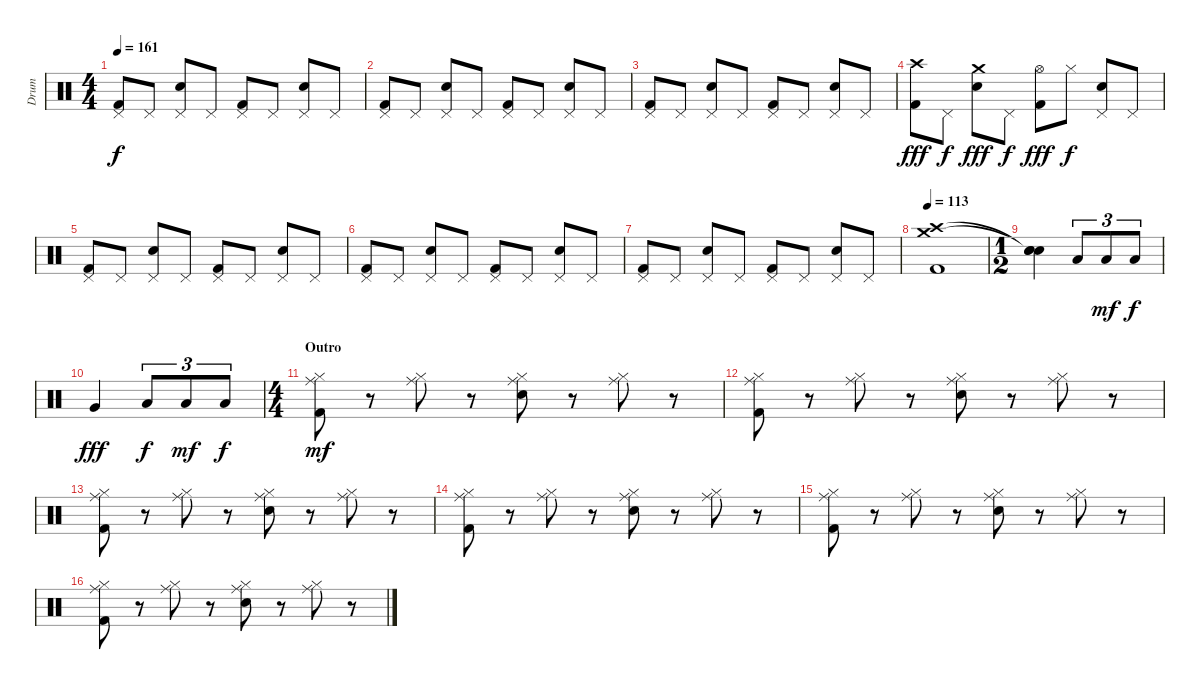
\track ("Drum" "Drum") {instrument percussion}
\staff {score}
\articulation defaults
\ts (4 4)
\tempo 161
\clef neutral
\ks c
("Pedal Hi-Hat (hit)" "Kick (hit) 2").8{dy f} "Pedal Hi-Hat (hit)".8 ("Pedal Hi-Hat (hit)" "Snare (hit) 2").8 "Pedal Hi-Hat (hit)".8 ("Pedal Hi-Hat (hit)" "Kick (hit) 2").8 "Pedal Hi-Hat (hit)".8 ("Pedal Hi-Hat (hit)" "Snare (hit) 2").8 "Pedal Hi-Hat (hit)".8 |
("Pedal Hi-Hat (hit)" "Kick (hit) 2").8 "Pedal Hi-Hat (hit)".8 ("Pedal Hi-Hat (hit)" "Snare (hit) 2").8 "Pedal Hi-Hat (hit)".8 ("Pedal Hi-Hat (hit)" "Kick (hit) 2").8 "Pedal Hi-Hat (hit)".8 ("Pedal Hi-Hat (hit)" "Snare (hit) 2").8 "Pedal Hi-Hat (hit)".8 |
("Pedal Hi-Hat (hit)" "Kick (hit) 2").8 "Pedal Hi-Hat (hit)".8 ("Pedal Hi-Hat (hit)" "Snare (hit) 2").8 "Pedal Hi-Hat (hit)".8 ("Pedal Hi-Hat (hit)" "Kick (hit) 2").8 "Pedal Hi-Hat (hit)".8 ("Pedal Hi-Hat (hit)" "Snare (hit) 2").8 "Pedal Hi-Hat (hit)".8 |
("Crash high (hit)" "Kick (hit) 2").8{dy fff} "Pedal Hi-Hat (hit)".8{dy f} ("Crash medium (hit)" "Snare (hit) 2").8{dy fff} "Pedal Hi-Hat (hit)".8{dy f} ("Hi-Hat (open)" "Kick (hit) 2").8{dy fff} "Hi-Hat (closed)".8{dy f} ("Pedal Hi-Hat (hit)" "Snare (hit) 2").8 "Pedal Hi-Hat (hit)".8 |
("Pedal Hi-Hat (hit)" "Kick (hit) 2").8 "Pedal Hi-Hat (hit)".8 ("Pedal Hi-Hat (hit)" "Snare (hit) 2").8 "Pedal Hi-Hat (hit)".8 ("Pedal Hi-Hat (hit)" "Kick (hit) 2").8 "Pedal Hi-Hat (hit)".8 ("Pedal Hi-Hat (hit)" "Snare (hit) 2").8 "Pedal Hi-Hat (hit)".8 |
("Pedal Hi-Hat (hit)" "Kick (hit) 2").8 "Pedal Hi-Hat (hit)".8 ("Pedal Hi-Hat (hit)" "Snare (hit) 2").8 "Pedal Hi-Hat (hit)".8 ("Pedal Hi-Hat (hit)" "Kick (hit) 2").8 "Pedal Hi-Hat (hit)".8 ("Pedal Hi-Hat (hit)" "Snare (hit) 2").8 "Pedal Hi-Hat (hit)".8 |
("Pedal Hi-Hat (hit)" "Kick (hit) 2").8 "Pedal Hi-Hat (hit)".8 ("Pedal Hi-Hat (hit)" "Snare (hit) 2").8 "Pedal Hi-Hat (hit)".8 ("Pedal Hi-Hat (hit)" "Kick (hit) 2").8 "Pedal Hi-Hat (hit)".8 ("Pedal Hi-Hat (hit)" "Snare (hit) 2").8 "Pedal Hi-Hat (hit)".8 |
\tempo 113
("Crash medium (hit)" "Crash high (hit)" "Kick (hit) 2").1 |
\ts (1 2)
("Snare (hit)"{t} "Snare (hit)"{t} "Snare (hit) 2").4 "Low Tom (hit)".8{tu (3 2)} "Low Tom (hit)".8{tu (3 2) dy mf} "Low Tom (hit)".8{tu (3 2) dy f} |
"Very Low Tom (hit)".4{dy fff} "Low Tom (hit)".8{tu (3 2) dy f} "Low Tom (hit)".8{tu (3 2) dy mf} "Low Tom (hit)".8{tu (3 2) dy f} |
\ts (4 4)
\section ("" "Outro")
("Ride (middle)" "Hi-Hat (closed)" "Kick (hit) 2").8{dy mf} r.8 ("Ride (middle)" "Hi-Hat (closed)").8 r.8 ("Ride (middle)" "Hi-Hat (closed)" "Snare (hit) 2").8 r.8 ("Ride (middle)" "Hi-Hat (closed)").8 r.8 |
("Ride (middle)" "Hi-Hat (closed)" "Kick (hit) 2").8 r.8 ("Ride (middle)" "Hi-Hat (closed)").8 r.8 ("Ride (middle)" "Hi-Hat (closed)" "Snare (hit) 2").8 r.8 ("Ride (middle)" "Hi-Hat (closed)").8 r.8 |
("Ride (middle)" "Hi-Hat (closed)" "Kick (hit) 2").8 r.8 ("Ride (middle)" "Hi-Hat (closed)").8 r.8 ("Ride (middle)" "Hi-Hat (closed)" "Snare (hit) 2").8 r.8 ("Ride (middle)" "Hi-Hat (closed)").8 r.8 |
("Ride (middle)" "Hi-Hat (closed)" "Kick (hit) 2").8 r.8 ("Ride (middle)" "Hi-Hat (closed)").8 r.8 ("Ride (middle)" "Hi-Hat (closed)" "Snare (hit) 2").8 r.8 ("Ride (middle)" "Hi-Hat (closed)").8 r.8 |
("Ride (middle)" "Hi-Hat (closed)" "Kick (hit) 2").8 r.8 ("Ride (middle)" "Hi-Hat (closed)").8 r.8 ("Ride (middle)" "Hi-Hat (closed)" "Snare (hit) 2").8 r.8 ("Ride (middle)" "Hi-Hat (closed)").8 r.8 |
("Ride (middle)" "Hi-Hat (closed)" "Kick (hit) 2").8 r.8 ("Ride (middle)" "Hi-Hat (closed)").8 r.8 ("Ride (middle)" "Hi-Hat (closed)" "Snare (hit) 2").8 r.8 ("Ride (middle)" "Hi-Hat (closed)").8 r.8
